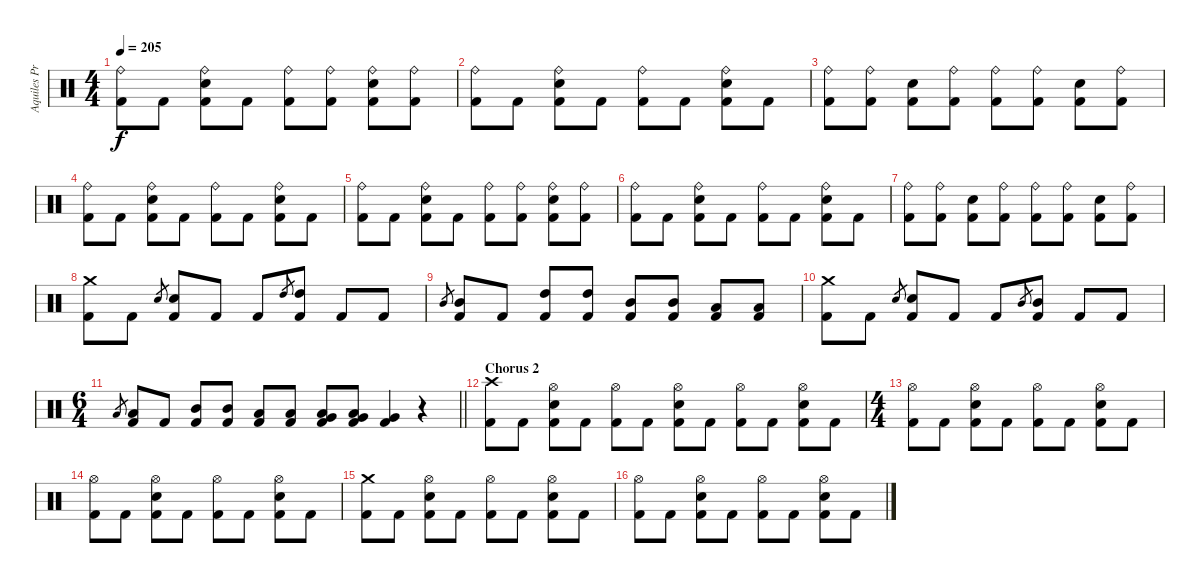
\track ("Aquiles Priester" "Aquiles Pr") {instrument percussion}
\staff {score}
\articulation defaults
\ts (4 4)
\tempo 205
\clef neutral
\ks c
("Ride (bell)" "Kick (hit) 2").8{dy f} "Kick (hit) 2".8 ("Ride (bell)" "Electric Snare (hit)" "Kick (hit) 2").8 "Kick (hit) 2".8 ("Ride (bell)" "Kick (hit) 2").8 ("Ride (bell)" "Kick (hit) 2").8 ("Ride (bell)" "Electric Snare (hit)" "Kick (hit) 2").8 ("Ride (bell)" "Kick (hit) 2").8 |
("Ride (bell)" "Kick (hit) 2").8 "Kick (hit) 2".8 ("Ride (bell)" "Electric Snare (hit)" "Kick (hit) 2").8 "Kick (hit) 2".8 ("Ride (bell)" "Kick (hit) 2").8 "Kick (hit) 2".8 ("Ride (bell)" "Electric Snare (hit)" "Kick (hit) 2").8 "Kick (hit) 2".8 |
("Ride (bell)" "Kick (hit) 2").8 ("Ride (bell)" "Kick (hit) 2").8 ("Electric Snare (hit)" "Kick (hit) 2").8 ("Ride (bell)" "Kick (hit) 2").8 ("Ride (bell)" "Kick (hit) 2").8 ("Ride (bell)" "Kick (hit) 2").8 ("Electric Snare (hit)" "Kick (hit) 2").8 ("Ride (bell)" "Kick (hit) 2").8 |
("Ride (bell)" "Kick (hit) 2").8 "Kick (hit) 2".8 ("Ride (bell)" "Electric Snare (hit)" "Kick (hit) 2").8 "Kick (hit) 2".8 ("Ride (bell)" "Kick (hit) 2").8 "Kick (hit) 2".8 ("Ride (bell)" "Electric Snare (hit)" "Kick (hit) 2").8 "Kick (hit) 2".8 |
("Ride (bell)" "Kick (hit) 2").8 "Kick (hit) 2".8 ("Ride (bell)" "Electric Snare (hit)" "Kick (hit) 2").8 "Kick (hit) 2".8 ("Ride (bell)" "Kick (hit) 2").8 ("Ride (bell)" "Kick (hit) 2").8 ("Ride (bell)" "Electric Snare (hit)" "Kick (hit) 2").8 ("Ride (bell)" "Kick (hit) 2").8 |
("Ride (bell)" "Kick (hit) 2").8 "Kick (hit) 2".8 ("Ride (bell)" "Electric Snare (hit)" "Kick (hit) 2").8 "Kick (hit) 2".8 ("Ride (bell)" "Kick (hit) 2").8 "Kick (hit) 2".8 ("Ride (bell)" "Electric Snare (hit)" "Kick (hit) 2").8 "Kick (hit) 2".8 |
("Ride (bell)" "Kick (hit) 2").8 ("Ride (bell)" "Kick (hit) 2").8 ("Electric Snare (hit)" "Kick (hit) 2").8 ("Ride (bell)" "Kick (hit) 2").8 ("Ride (bell)" "Kick (hit) 2").8 ("Ride (bell)" "Kick (hit) 2").8 ("Electric Snare (hit)" "Kick (hit) 2").8 ("Ride (bell)" "Kick (hit) 2").8 |
("Crash medium (hit)" "Kick (hit) 2").8 "Kick (hit) 2".8 "Electric Snare (hit)".8{gr} ("Electric Snare (hit)" "Kick (hit) 2").8 "Kick (hit) 2".8 "Kick (hit) 2".8 "High Tom (hit)".8{gr} ("High Tom (hit)" "Kick (hit) 2").8 "Kick (hit) 2".8 "Kick (hit) 2".8 |
"Mid Tom (hit)".8{gr} ("Mid Tom (hit)" "Kick (hit) 2").8 "Kick (hit) 2".8 ("High Tom (hit)" "Kick (hit) 2").8 ("High Tom (hit)" "Kick (hit) 2").8 ("Mid Tom (hit)" "Kick (hit) 2").8 ("Mid Tom (hit)" "Kick (hit) 2").8 ("Low Tom (hit)" "Kick (hit) 2").8 ("Low Tom (hit)" "Kick (hit) 2").8 |
("Crash medium (hit)" "Kick (hit) 2").8 "Kick (hit) 2".8 "Electric Snare (hit)".8{gr} ("Electric Snare (hit)" "Kick (hit) 2").8 "Kick (hit) 2".8 "Kick (hit) 2".8 "Mid Tom (hit)".8{gr} ("Mid Tom (hit)" "Kick (hit) 2").8 "Kick (hit) 2".8 "Kick (hit) 2".8 |
\ts (6 4)
\barLineRight lightlight "Low Tom (hit)".8{gr}
("Low Tom (hit)" "Kick (hit) 2").8 "Kick (hit) 2".8 ("Mid Tom (hit)" "Kick (hit) 2").8 ("Mid Tom (hit)" "Kick (hit) 2").8 ("Low Tom (hit)" "Kick (hit) 2").8 ("Low Tom (hit)" "Kick (hit) 2").8 ("Low Tom (hit)" "Very Low Tom (hit)" "Kick (hit) 2").8 ("Low Tom (hit)" "Very Low Tom (hit)" "Kick (hit) 2").8 ("Very Low Tom (hit)" "Kick (hit) 2").4 r.4 |
\section ("" "Chorus 2")
("Crash high (hit)" "Kick (hit) 2").8 "Kick (hit) 2".8 ("Hi-Hat (open)" "Electric Snare (hit)" "Kick (hit) 2").8 "Kick (hit) 2".8 ("Hi-Hat (open)" "Kick (hit) 2").8 "Kick (hit) 2".8 ("Hi-Hat (open)" "Electric Snare (hit)" "Kick (hit) 2").8 "Kick (hit) 2".8 ("Hi-Hat (open)" "Kick (hit) 2").8 "Kick (hit) 2".8 ("Hi-Hat (open)" "Electric Snare (hit)" "Kick (hit) 2").8 "Kick (hit) 2".8 |
\ts (4 4)
("Hi-Hat (open)" "Kick (hit) 2").8 "Kick (hit) 2".8 ("Hi-Hat (open)" "Electric Snare (hit)" "Kick (hit) 2").8 "Kick (hit) 2".8 ("Hi-Hat (open)" "Kick (hit) 2").8 "Kick (hit) 2".8 ("Hi-Hat (open)" "Electric Snare (hit)" "Kick (hit) 2").8 "Kick (hit) 2".8 |
("Hi-Hat (open)" "Kick (hit) 2").8 "Kick (hit) 2".8 ("Hi-Hat (open)" "Electric Snare (hit)" "Kick (hit) 2").8 "Kick (hit) 2".8 ("Hi-Hat (open)" "Kick (hit) 2").8 "Kick (hit) 2".8 ("Hi-Hat (open)" "Electric Snare (hit)" "Kick (hit) 2").8 "Kick (hit) 2".8 |
("Crash medium (hit)" "Kick (hit) 2").8 "Kick (hit) 2".8 ("Hi-Hat (open)" "Electric Snare (hit)" "Kick (hit) 2").8 "Kick (hit) 2".8 ("Hi-Hat (open)" "Kick (hit) 2").8 "Kick (hit) 2".8 ("Hi-Hat (open)" "Electric Snare (hit)" "Kick (hit) 2").8 "Kick (hit) 2".8 |
("Hi-Hat (open)" "Kick (hit) 2").8 "Kick (hit) 2".8 ("Hi-Hat (open)" "Electric Snare (hit)" "Kick (hit) 2").8 "Kick (hit) 2".8 ("Hi-Hat (open)" "Kick (hit) 2").8 "Kick (hit) 2".8 ("Hi-Hat (open)" "Electric Snare (hit)" "Kick (hit) 2").8 "Kick (hit) 2".8
